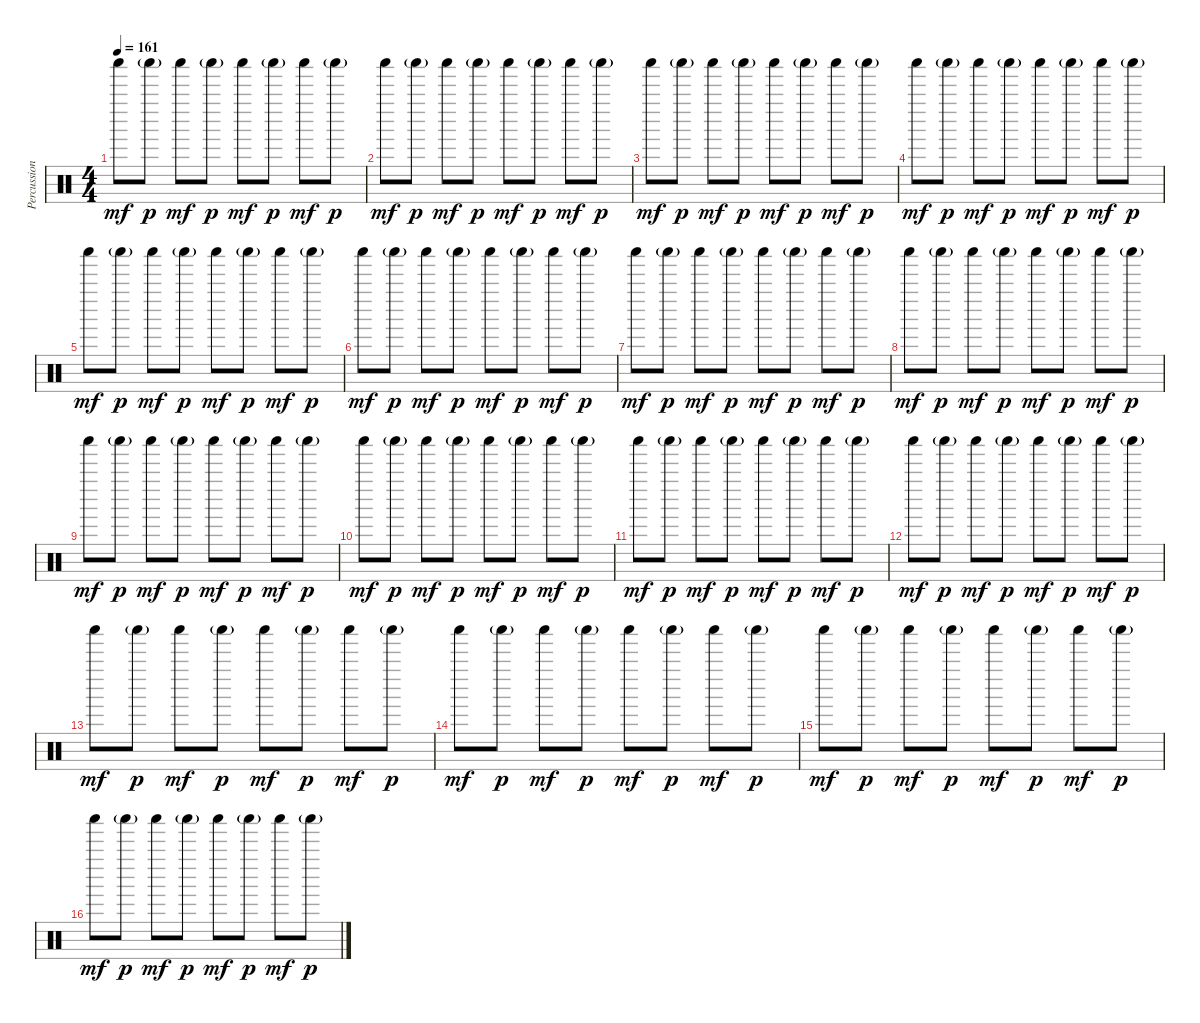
\track ("Percussion" "Percussion") {instrument percussion}
\staff {score}
\articulation defaults
\ts (4 4)
\tempo 161
\clef neutral
\ks c "Shaker (hit)".8{dy mf} "Shaker (hit)"{g}.8{dy p} "Shaker (hit)".8{dy mf} "Shaker (hit)"{g}.8{dy p} "Shaker (hit)".8{dy mf} "Shaker (hit)"{g}.8{dy p} "Shaker (hit)".8{dy mf} "Shaker (hit)"{g}.8{dy p}
|
"Shaker (hit)".8{dy mf} "Shaker (hit)"{g}.8{dy p} "Shaker (hit)".8{dy mf} "Shaker (hit)"{g}.8{dy p} "Shaker (hit)".8{dy mf} "Shaker (hit)"{g}.8{dy p} "Shaker (hit)".8{dy mf} "Shaker (hit)"{g}.8{dy p} |
"Shaker (hit)".8{dy mf} "Shaker (hit)"{g}.8{dy p} "Shaker (hit)".8{dy mf} "Shaker (hit)"{g}.8{dy p} "Shaker (hit)".8{dy mf} "Shaker (hit)"{g}.8{dy p} "Shaker (hit)".8{dy mf} "Shaker (hit)"{g}.8{dy p} |
"Shaker (hit)".8{dy mf} "Shaker (hit)"{g}.8{dy p} "Shaker (hit)".8{dy mf} "Shaker (hit)"{g}.8{dy p} "Shaker (hit)".8{dy mf} "Shaker (hit)"{g}.8{dy p} "Shaker (hit)".8{dy mf} "Shaker (hit)"{g}.8{dy p} |
"Shaker (hit)".8{dy mf} "Shaker (hit)"{g}.8{dy p} "Shaker (hit)".8{dy mf} "Shaker (hit)"{g}.8{dy p} "Shaker (hit)".8{dy mf} "Shaker (hit)"{g}.8{dy p} "Shaker (hit)".8{dy mf} "Shaker (hit)"{g}.8{dy p} |
"Shaker (hit)".8{dy mf} "Shaker (hit)"{g}.8{dy p} "Shaker (hit)".8{dy mf} "Shaker (hit)"{g}.8{dy p} "Shaker (hit)".8{dy mf} "Shaker (hit)"{g}.8{dy p} "Shaker (hit)".8{dy mf} "Shaker (hit)"{g}.8{dy p} |
"Shaker (hit)".8{dy mf} "Shaker (hit)"{g}.8{dy p} "Shaker (hit)".8{dy mf} "Shaker (hit)"{g}.8{dy p} "Shaker (hit)".8{dy mf} "Shaker (hit)"{g}.8{dy p} "Shaker (hit)".8{dy mf} "Shaker (hit)"{g}.8{dy p} |
"Shaker (hit)".8{dy mf} "Shaker (hit)"{g}.8{dy p} "Shaker (hit)".8{dy mf} "Shaker (hit)"{g}.8{dy p} "Shaker (hit)".8{dy mf} "Shaker (hit)"{g}.8{dy p} "Shaker (hit)".8{dy mf} "Shaker (hit)"{g}.8{dy p} |
"Shaker (hit)".8{dy mf} "Shaker (hit)"{g}.8{dy p} "Shaker (hit)".8{dy mf} "Shaker (hit)"{g}.8{dy p} "Shaker (hit)".8{dy mf} "Shaker (hit)"{g}.8{dy p} "Shaker (hit)".8{dy mf} "Shaker (hit)"{g}.8{dy p} |
"Shaker (hit)".8{dy mf} "Shaker (hit)"{g}.8{dy p} "Shaker (hit)".8{dy mf} "Shaker (hit)"{g}.8{dy p} "Shaker (hit)".8{dy mf} "Shaker (hit)"{g}.8{dy p} "Shaker (hit)".8{dy mf} "Shaker (hit)"{g}.8{dy p} |
"Shaker (hit)".8{dy mf} "Shaker (hit)"{g}.8{dy p} "Shaker (hit)".8{dy mf} "Shaker (hit)"{g}.8{dy p} "Shaker (hit)".8{dy mf} "Shaker (hit)"{g}.8{dy p} "Shaker (hit)".8{dy mf} "Shaker (hit)"{g}.8{dy p} |
"Shaker (hit)".8{dy mf} "Shaker (hit)"{g}.8{dy p} "Shaker (hit)".8{dy mf} "Shaker (hit)"{g}.8{dy p} "Shaker (hit)".8{dy mf} "Shaker (hit)"{g}.8{dy p} "Shaker (hit)".8{dy mf} "Shaker (hit)"{g}.8{dy p} |
"Shaker (hit)".8{dy mf} "Shaker (hit)"{g}.8{dy p} "Shaker (hit)".8{dy mf} "Shaker (hit)"{g}.8{dy p} "Shaker (hit)".8{dy mf} "Shaker (hit)"{g}.8{dy p} "Shaker (hit)".8{dy mf} "Shaker (hit)"{g}.8{dy p} |
"Shaker (hit)".8{dy mf} "Shaker (hit)"{g}.8{dy p} "Shaker (hit)".8{dy mf} "Shaker (hit)"{g}.8{dy p} "Shaker (hit)".8{dy mf} "Shaker (hit)"{g}.8{dy p} "Shaker (hit)".8{dy mf} "Shaker (hit)"{g}.8{dy p} |
"Shaker (hit)".8{dy mf} "Shaker (hit)"{g}.8{dy p} "Shaker (hit)".8{dy mf} "Shaker (hit)"{g}.8{dy p} "Shaker (hit)".8{dy mf} "Shaker (hit)"{g}.8{dy p} "Shaker (hit)".8{dy mf} "Shaker (hit)"{g}.8{dy p} |
"Shaker (hit)".8{dy mf} "Shaker (hit)"{g}.8{dy p} "Shaker (hit)".8{dy mf} "Shaker (hit)"{g}.8{dy p} "Shaker (hit)".8{dy mf} "Shaker (hit)"{g}.8{dy p} "Shaker (hit)".8{dy mf} "Shaker (hit)"{g}.8{dy p}
